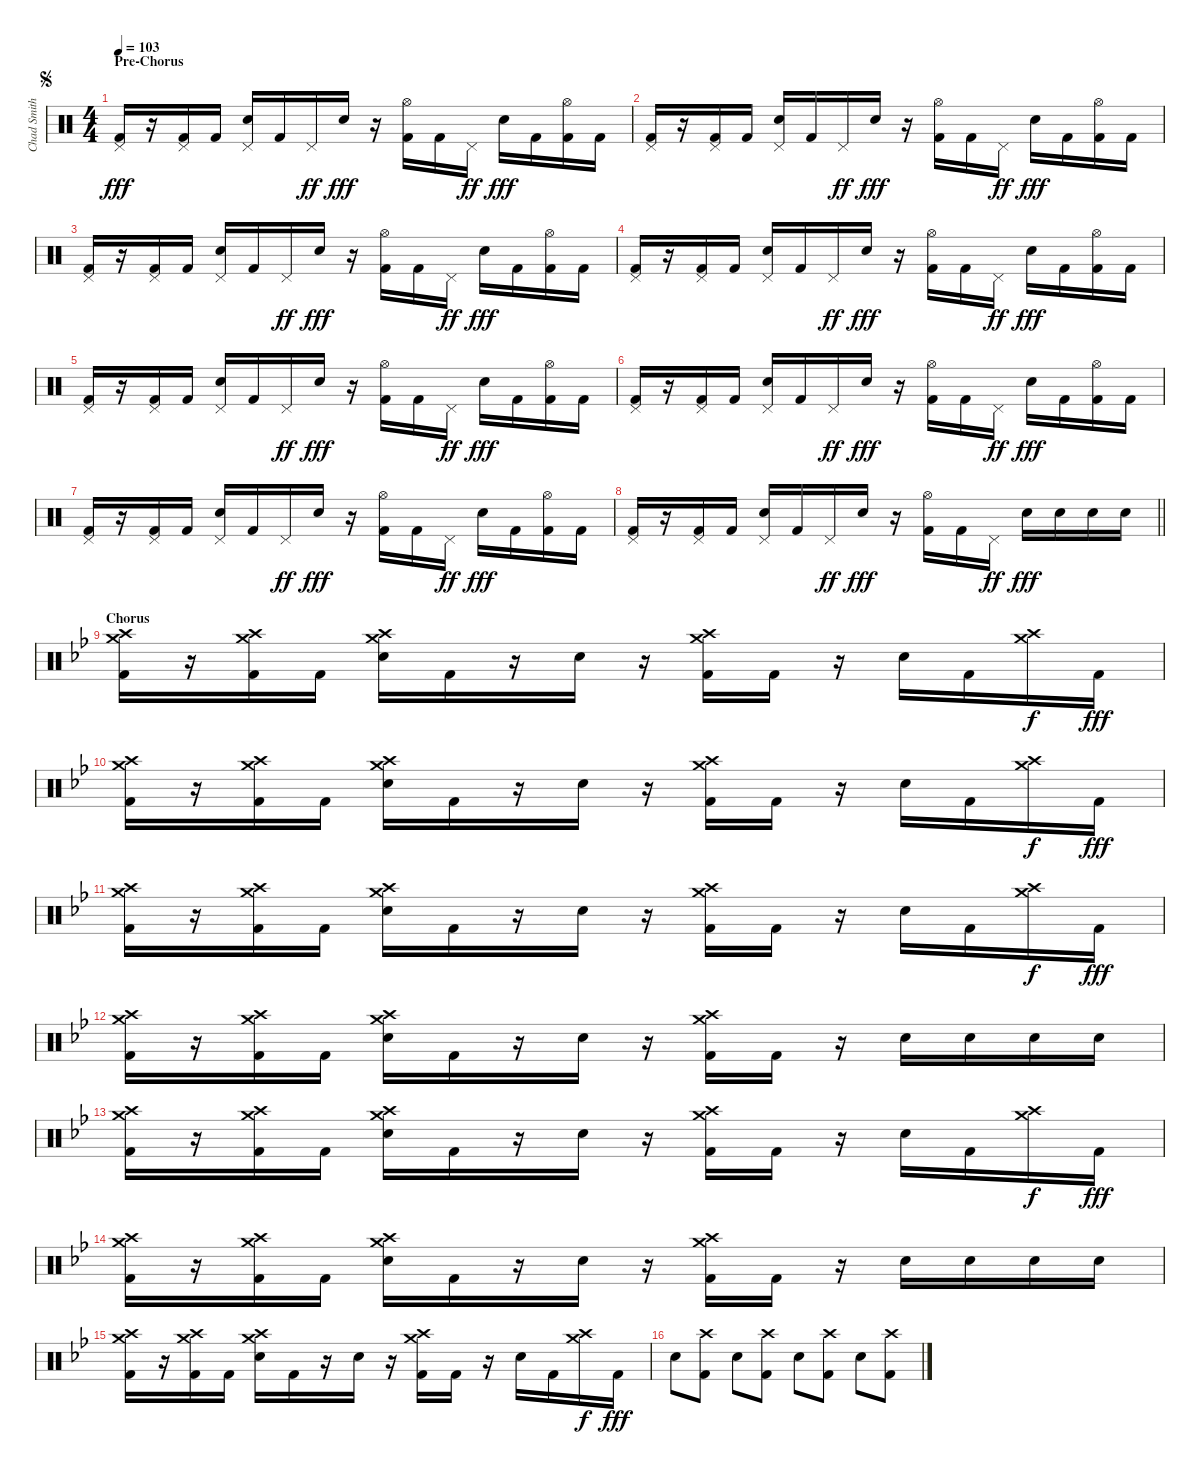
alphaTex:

\track ("Chad Smith (Drums)" "Chad Smith") {instrument percussion}
\staff {score}
\articulation defaults
\ts (4 4)
\section ("" "Pre-Chorus")
\jump segno
\tempo 103
\clef neutral
\ks c
("Pedal Hi-Hat (hit)" "Kick (hit) 2").16{dy fff} r.16 ("Pedal Hi-Hat (hit)" "Kick (hit) 2").16 "Kick (hit) 2".16 ("Pedal Hi-Hat (hit)" "Snare (hit) 2").16 "Kick (hit) 2".16 "Pedal Hi-Hat (hit)".16{dy ff} "Snare (hit) 2".16{dy fff} r.16 ("Hi-Hat (open)" "Kick (hit) 2").16 "Kick (hit) 2".16 "Pedal Hi-Hat (hit)".16{dy ff} "Snare (hit) 2".16{dy fff} "Kick (hit) 2".16 ("Hi-Hat (open)" "Kick (hit) 2").16 "Kick (hit) 2".16 |
("Pedal Hi-Hat (hit)" "Kick (hit) 2").16 r.16 ("Pedal Hi-Hat (hit)" "Kick (hit) 2").16 "Kick (hit) 2".16 ("Pedal Hi-Hat (hit)" "Snare (hit) 2").16 "Kick (hit) 2".16 "Pedal Hi-Hat (hit)".16{dy ff} "Snare (hit) 2".16{dy fff} r.16 ("Hi-Hat (open)" "Kick (hit) 2").16 "Kick (hit) 2".16 "Pedal Hi-Hat (hit)".16{dy ff} "Snare (hit) 2".16{dy fff} "Kick (hit) 2".16 ("Hi-Hat (open)" "Kick (hit) 2").16 "Kick (hit) 2".16 |
("Pedal Hi-Hat (hit)" "Kick (hit) 2").16 r.16 ("Pedal Hi-Hat (hit)" "Kick (hit) 2").16 "Kick (hit) 2".16 ("Pedal Hi-Hat (hit)" "Snare (hit) 2").16 "Kick (hit) 2".16 "Pedal Hi-Hat (hit)".16{dy ff} "Snare (hit) 2".16{dy fff} r.16 ("Hi-Hat (open)" "Kick (hit) 2").16 "Kick (hit) 2".16 "Pedal Hi-Hat (hit)".16{dy ff} "Snare (hit) 2".16{dy fff} "Kick (hit) 2".16 ("Hi-Hat (open)" "Kick (hit) 2").16 "Kick (hit) 2".16 |
("Pedal Hi-Hat (hit)" "Kick (hit) 2").16 r.16 ("Pedal Hi-Hat (hit)" "Kick (hit) 2").16 "Kick (hit) 2".16 ("Pedal Hi-Hat (hit)" "Snare (hit) 2").16 "Kick (hit) 2".16 "Pedal Hi-Hat (hit)".16{dy ff} "Snare (hit) 2".16{dy fff} r.16 ("Hi-Hat (open)" "Kick (hit) 2").16 "Kick (hit) 2".16 "Pedal Hi-Hat (hit)".16{dy ff} "Snare (hit) 2".16{dy fff} "Kick (hit) 2".16 ("Hi-Hat (open)" "Kick (hit) 2").16 "Kick (hit) 2".16 |
("Pedal Hi-Hat (hit)" "Kick (hit) 2").16 r.16 ("Pedal Hi-Hat (hit)" "Kick (hit) 2").16 "Kick (hit) 2".16 ("Pedal Hi-Hat (hit)" "Snare (hit) 2").16 "Kick (hit) 2".16 "Pedal Hi-Hat (hit)".16{dy ff} "Snare (hit) 2".16{dy fff} r.16 ("Hi-Hat (open)" "Kick (hit) 2").16 "Kick (hit) 2".16 "Pedal Hi-Hat (hit)".16{dy ff} "Snare (hit) 2".16{dy fff} "Kick (hit) 2".16 ("Hi-Hat (open)" "Kick (hit) 2").16 "Kick (hit) 2".16 |
("Pedal Hi-Hat (hit)" "Kick (hit) 2").16 r.16 ("Pedal Hi-Hat (hit)" "Kick (hit) 2").16 "Kick (hit) 2".16 ("Pedal Hi-Hat (hit)" "Snare (hit) 2").16 "Kick (hit) 2".16 "Pedal Hi-Hat (hit)".16{dy ff} "Snare (hit) 2".16{dy fff} r.16 ("Hi-Hat (open)" "Kick (hit) 2").16 "Kick (hit) 2".16 "Pedal Hi-Hat (hit)".16{dy ff} "Snare (hit) 2".16{dy fff} "Kick (hit) 2".16 ("Hi-Hat (open)" "Kick (hit) 2").16 "Kick (hit) 2".16 |
("Pedal Hi-Hat (hit)" "Kick (hit) 2").16 r.16 ("Pedal Hi-Hat (hit)" "Kick (hit) 2").16 "Kick (hit) 2".16 ("Pedal Hi-Hat (hit)" "Snare (hit) 2").16 "Kick (hit) 2".16 "Pedal Hi-Hat (hit)".16{dy ff} "Snare (hit) 2".16{dy fff} r.16 ("Hi-Hat (open)" "Kick (hit) 2").16 "Kick (hit) 2".16 "Pedal Hi-Hat (hit)".16{dy ff} "Snare (hit) 2".16{dy fff} "Kick (hit) 2".16 ("Hi-Hat (open)" "Kick (hit) 2").16 "Kick (hit) 2".16 |
\barLineRight lightlight
("Pedal Hi-Hat (hit)" "Kick (hit) 2").16 r.16 ("Pedal Hi-Hat (hit)" "Kick (hit) 2").16 "Kick (hit) 2".16 ("Pedal Hi-Hat (hit)" "Snare (hit) 2").16 "Kick (hit) 2".16 "Pedal Hi-Hat (hit)".16{dy ff} "Snare (hit) 2".16{dy fff} r.16 ("Hi-Hat (open)" "Kick (hit) 2").16 "Kick (hit) 2".16 "Pedal Hi-Hat (hit)".16{dy ff} "Snare (hit) 2".16{dy fff} "Snare (hit) 2".16 "Snare (hit) 2".16 "Snare (hit) 2".16 |
\section ("" "Chorus")
\ks bb
("Crash medium (hit)" "Crash high (hit)" "Kick (hit) 2").16{volume 11} r.16 ("Crash medium (hit)" "Crash high (hit)" "Kick (hit) 2").16 "Kick (hit) 2".16 ("Crash medium (hit)" "Crash high (hit)" "Snare (hit) 2").16 "Kick (hit) 2".16 r.16 "Snare (hit) 2".16 r.16 ("Crash medium (hit)" "Crash high (hit)" "Kick (hit) 2").16 "Kick (hit) 2".16 r.16 "Snare (hit) 2".16 "Kick (hit) 2".16 ("Crash medium (hit)" "Crash high (hit)").16{dy f} "Kick (hit) 2".16{dy fff} |
("Crash medium (hit)" "Crash high (hit)" "Kick (hit) 2").16 r.16 ("Crash medium (hit)" "Crash high (hit)" "Kick (hit) 2").16 "Kick (hit) 2".16 ("Crash medium (hit)" "Crash high (hit)" "Snare (hit) 2").16 "Kick (hit) 2".16 r.16 "Snare (hit) 2".16 r.16 ("Crash medium (hit)" "Crash high (hit)" "Kick (hit) 2").16 "Kick (hit) 2".16 r.16 "Snare (hit) 2".16 "Kick (hit) 2".16 ("Crash medium (hit)" "Crash high (hit)").16{dy f} "Kick (hit) 2".16{dy fff} |
("Crash medium (hit)" "Crash high (hit)" "Kick (hit) 2").16 r.16 ("Crash medium (hit)" "Crash high (hit)" "Kick (hit) 2").16 "Kick (hit) 2".16 ("Crash medium (hit)" "Crash high (hit)" "Snare (hit) 2").16 "Kick (hit) 2".16 r.16 "Snare (hit) 2".16 r.16 ("Crash medium (hit)" "Crash high (hit)" "Kick (hit) 2").16 "Kick (hit) 2".16 r.16 "Snare (hit) 2".16 "Kick (hit) 2".16 ("Crash medium (hit)" "Crash high (hit)").16{dy f} "Kick (hit) 2".16{dy fff} |
("Crash medium (hit)" "Crash high (hit)" "Kick (hit) 2").16 r.16 ("Crash medium (hit)" "Crash high (hit)" "Kick (hit) 2").16 "Kick (hit) 2".16 ("Crash medium (hit)" "Crash high (hit)" "Snare (hit) 2").16 "Kick (hit) 2".16 r.16 "Snare (hit) 2".16 r.16 ("Crash medium (hit)" "Crash high (hit)" "Kick (hit) 2").16 "Kick (hit) 2".16 r.16 "Snare (hit) 2".16 "Snare (hit) 2".16 "Snare (hit) 2".16 "Snare (hit) 2".16 |
("Crash medium (hit)" "Crash high (hit)" "Kick (hit) 2").16 r.16 ("Crash medium (hit)" "Crash high (hit)" "Kick (hit) 2").16 "Kick (hit) 2".16 ("Crash medium (hit)" "Crash high (hit)" "Snare (hit) 2").16 "Kick (hit) 2".16 r.16 "Snare (hit) 2".16 r.16 ("Crash medium (hit)" "Crash high (hit)" "Kick (hit) 2").16 "Kick (hit) 2".16 r.16 "Snare (hit) 2".16 "Kick (hit) 2".16 ("Crash medium (hit)" "Crash high (hit)").16{dy f} "Kick (hit) 2".16{dy fff} |
("Crash medium (hit)" "Crash high (hit)" "Kick (hit) 2").16 r.16 ("Crash medium (hit)" "Crash high (hit)" "Kick (hit) 2").16 "Kick (hit) 2".16 ("Crash medium (hit)" "Crash high (hit)" "Snare (hit) 2").16 "Kick (hit) 2".16 r.16 "Snare (hit) 2".16 r.16 ("Crash medium (hit)" "Crash high (hit)" "Kick (hit) 2").16 "Kick (hit) 2".16 r.16 "Snare (hit) 2".16 "Snare (hit) 2".16 "Snare (hit) 2".16 "Snare (hit) 2".16 |
("Crash medium (hit)" "Crash high (hit)" "Kick (hit) 2").16 r.16 ("Crash medium (hit)" "Crash high (hit)" "Kick (hit) 2").16 "Kick (hit) 2".16 ("Crash medium (hit)" "Crash high (hit)" "Snare (hit) 2").16 "Kick (hit) 2".16 r.16 "Snare (hit) 2".16 r.16 ("Crash medium (hit)" "Crash high (hit)" "Kick (hit) 2").16 "Kick (hit) 2".16 r.16 "Snare (hit) 2".16 "Kick (hit) 2".16 ("Crash medium (hit)" "Crash high (hit)").16{dy f} "Kick (hit) 2".16{dy fff} |
"Snare (hit) 2".8 ("Crash high (hit)" "Kick (hit) 2").8 "Snare (hit) 2".8 ("Crash high (hit)" "Kick (hit) 2").8 "Snare (hit) 2".8 ("Crash high (hit)" "Kick (hit) 2").8 "Snare (hit) 2".8 ("Crash high (hit)" "Kick (hit) 2").8
